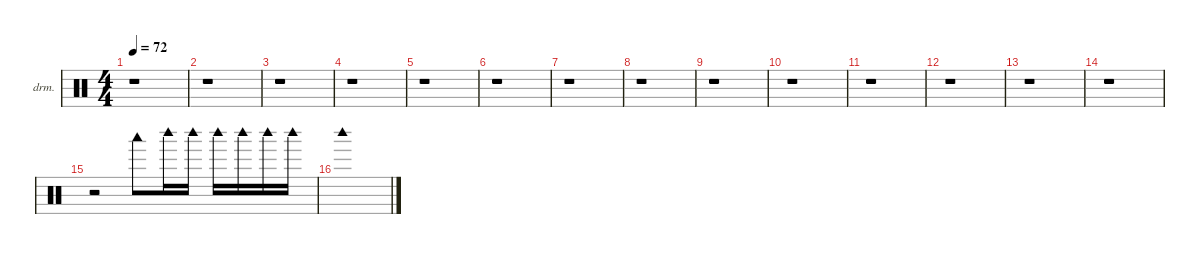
\hideDynamics
\bracketExtendMode nobrackets
\firstSystemTrackNameOrientation horizontal
\otherSystemsTrackNameOrientation horizontal
\track ("Drumkit" "drm.") {instrument percussion}
\staff {score}
\articulation defaults
\ts (4 4)
\tempo 72
\clef neutral
\ks aminor
r.1{dy mf} |
r.1 |
r.1 |
r.1 |
r.1 |
r.1 |
r.1 |
r.1 |
r.1 |
r.1 |
r.1 |
r.1 |
r.1 |
r.1 |
r.2 "Woodblock low (hit)".8 "Woodblock high (hit)".16 "Woodblock high (hit)".16 "Woodblock high (hit)".16 "Woodblock high (hit)".16 "Woodblock high (hit)".16 "Woodblock high (hit)".16 |
"Woodblock high (hit)".1
